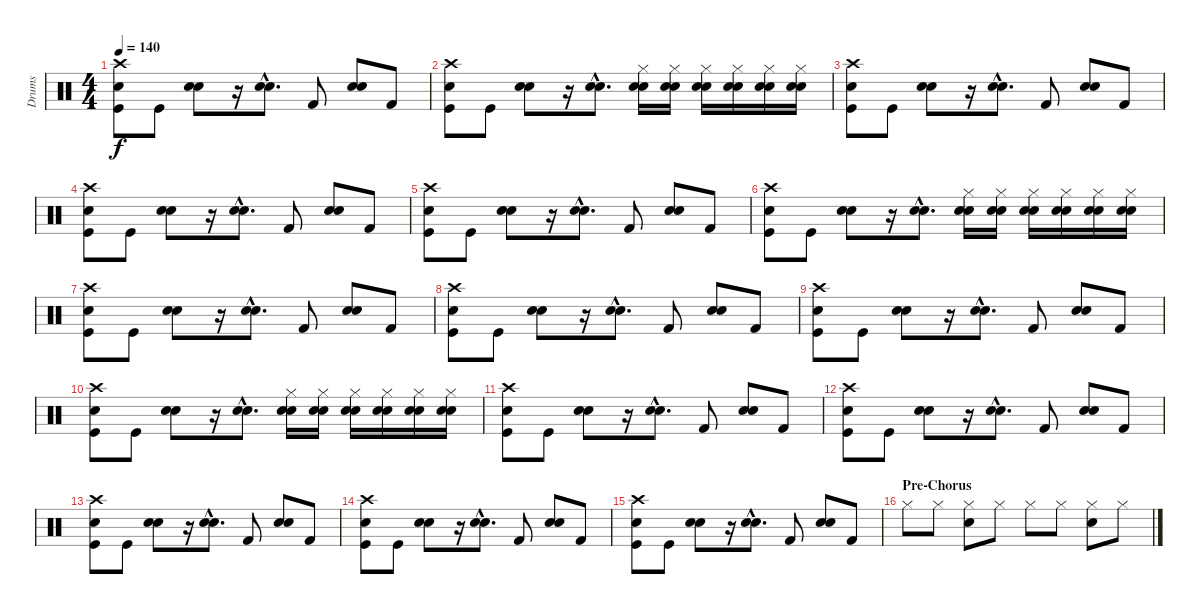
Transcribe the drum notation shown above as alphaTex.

\track ("Drums" "Drums") {instrument percussion}
\staff {score}
\articulation defaults
\ts (4 4)
\tempo 140
\clef neutral
\ks c
("Crash high (hit)" "Electric Snare (hit)" "Kick (hit)").8{dy f} "Kick (hit)".8 ("Electric Snare (hit)" "Snare (hit) 2").8 r.16 ("Electric Snare (hit)"{hac} "Snare (hit) 2"{hac}).8{d} "Kick (hit) 2".8 ("Electric Snare (hit)" "Snare (hit) 2").8 "Kick (hit) 2".8 |
("Crash high (hit)" "Electric Snare (hit)" "Kick (hit)").8 "Kick (hit)".8 ("Electric Snare (hit)" "Snare (hit) 2").8 r.16 ("Electric Snare (hit)"{hac} "Snare (hit) 2"{hac}).8{d} ("Hi-Hat (closed)" "Electric Snare (hit)" "Snare (hit) 2").16 ("Hi-Hat (closed)" "Electric Snare (hit)" "Snare (hit) 2").16 ("Hi-Hat (closed)" "Electric Snare (hit)" "Snare (hit) 2").16 ("Hi-Hat (closed)" "Electric Snare (hit)" "Snare (hit) 2").16 ("Hi-Hat (closed)" "Electric Snare (hit)" "Snare (hit) 2").16 ("Hi-Hat (closed)" "Electric Snare (hit)" "Snare (hit) 2").16 |
("Crash high (hit)" "Electric Snare (hit)" "Kick (hit)").8 "Kick (hit)".8 ("Electric Snare (hit)" "Snare (hit) 2").8 r.16 ("Electric Snare (hit)"{hac} "Snare (hit) 2"{hac}).8{d} "Kick (hit) 2".8 ("Electric Snare (hit)" "Snare (hit) 2").8 "Kick (hit) 2".8 |
("Crash high (hit)" "Electric Snare (hit)" "Kick (hit)").8 "Kick (hit)".8 ("Electric Snare (hit)" "Snare (hit) 2").8 r.16 ("Electric Snare (hit)"{hac} "Snare (hit) 2"{hac}).8{d} "Kick (hit) 2".8 ("Electric Snare (hit)" "Snare (hit) 2").8 "Kick (hit) 2".8 |
("Crash high (hit)" "Electric Snare (hit)" "Kick (hit)").8 "Kick (hit)".8 ("Electric Snare (hit)" "Snare (hit) 2").8 r.16 ("Electric Snare (hit)"{hac} "Snare (hit) 2"{hac}).8{d} "Kick (hit) 2".8 ("Electric Snare (hit)" "Snare (hit) 2").8 "Kick (hit) 2".8 |
("Crash high (hit)" "Electric Snare (hit)" "Kick (hit)").8 "Kick (hit)".8 ("Electric Snare (hit)" "Snare (hit) 2").8 r.16 ("Electric Snare (hit)"{hac} "Snare (hit) 2"{hac}).8{d} ("Hi-Hat (closed)" "Electric Snare (hit)" "Snare (hit) 2").16 ("Hi-Hat (closed)" "Electric Snare (hit)" "Snare (hit) 2").16 ("Hi-Hat (closed)" "Electric Snare (hit)" "Snare (hit) 2").16 ("Hi-Hat (closed)" "Electric Snare (hit)" "Snare (hit) 2").16 ("Hi-Hat (closed)" "Electric Snare (hit)" "Snare (hit) 2").16 ("Hi-Hat (closed)" "Electric Snare (hit)" "Snare (hit) 2").16 |
("Crash high (hit)" "Electric Snare (hit)" "Kick (hit)").8 "Kick (hit)".8 ("Electric Snare (hit)" "Snare (hit) 2").8 r.16 ("Electric Snare (hit)"{hac} "Snare (hit) 2"{hac}).8{d} "Kick (hit) 2".8 ("Electric Snare (hit)" "Snare (hit) 2").8 "Kick (hit) 2".8 |
("Crash high (hit)" "Electric Snare (hit)" "Kick (hit)").8 "Kick (hit)".8 ("Electric Snare (hit)" "Snare (hit) 2").8 r.16 ("Electric Snare (hit)"{hac} "Snare (hit) 2"{hac}).8{d} "Kick (hit) 2".8 ("Electric Snare (hit)" "Snare (hit) 2").8 "Kick (hit) 2".8 |
("Crash high (hit)" "Electric Snare (hit)" "Kick (hit)").8 "Kick (hit)".8 ("Electric Snare (hit)" "Snare (hit) 2").8 r.16 ("Electric Snare (hit)"{hac} "Snare (hit) 2"{hac}).8{d} "Kick (hit) 2".8 ("Electric Snare (hit)" "Snare (hit) 2").8 "Kick (hit) 2".8 |
("Crash high (hit)" "Electric Snare (hit)" "Kick (hit)").8 "Kick (hit)".8 ("Electric Snare (hit)" "Snare (hit) 2").8 r.16 ("Electric Snare (hit)"{hac} "Snare (hit) 2"{hac}).8{d} ("Hi-Hat (closed)" "Electric Snare (hit)" "Snare (hit) 2").16 ("Hi-Hat (closed)" "Electric Snare (hit)" "Snare (hit) 2").16 ("Hi-Hat (closed)" "Electric Snare (hit)" "Snare (hit) 2").16 ("Hi-Hat (closed)" "Electric Snare (hit)" "Snare (hit) 2").16 ("Hi-Hat (closed)" "Electric Snare (hit)" "Snare (hit) 2").16 ("Hi-Hat (closed)" "Electric Snare (hit)" "Snare (hit) 2").16 |
("Crash high (hit)" "Electric Snare (hit)" "Kick (hit)").8 "Kick (hit)".8 ("Electric Snare (hit)" "Snare (hit) 2").8 r.16 ("Electric Snare (hit)"{hac} "Snare (hit) 2"{hac}).8{d} "Kick (hit) 2".8 ("Electric Snare (hit)" "Snare (hit) 2").8 "Kick (hit) 2".8 |
("Crash high (hit)" "Electric Snare (hit)" "Kick (hit)").8 "Kick (hit)".8 ("Electric Snare (hit)" "Snare (hit) 2").8 r.16 ("Electric Snare (hit)"{hac} "Snare (hit) 2"{hac}).8{d} "Kick (hit) 2".8 ("Electric Snare (hit)" "Snare (hit) 2").8 "Kick (hit) 2".8 |
("Crash high (hit)" "Electric Snare (hit)" "Kick (hit)").8 "Kick (hit)".8 ("Electric Snare (hit)" "Snare (hit) 2").8 r.16 ("Electric Snare (hit)"{hac} "Snare (hit) 2"{hac}).8{d} "Kick (hit) 2".8 ("Electric Snare (hit)" "Snare (hit) 2").8 "Kick (hit) 2".8 |
("Crash high (hit)" "Electric Snare (hit)" "Kick (hit)").8 "Kick (hit)".8 ("Electric Snare (hit)" "Snare (hit) 2").8 r.16 ("Electric Snare (hit)"{hac} "Snare (hit) 2"{hac}).8{d} "Kick (hit) 2".8 ("Electric Snare (hit)" "Snare (hit) 2").8 "Kick (hit) 2".8 |
("Crash high (hit)" "Electric Snare (hit)" "Kick (hit)").8 "Kick (hit)".8 ("Electric Snare (hit)" "Snare (hit) 2").8 r.16 ("Electric Snare (hit)"{hac} "Snare (hit) 2"{hac}).8{d} "Kick (hit) 2".8 ("Electric Snare (hit)" "Snare (hit) 2").8 "Kick (hit) 2".8 |
\section ("" "Pre-Chorus")
"Hi-Hat (closed)".8 "Hi-Hat (closed)".8 ("Snare (hit) 2" "Hi-Hat (closed)").8 "Hi-Hat (closed)".8 "Hi-Hat (closed)".8 "Hi-Hat (closed)".8 ("Snare (hit) 2" "Hi-Hat (closed)").8 "Hi-Hat (closed)".8
